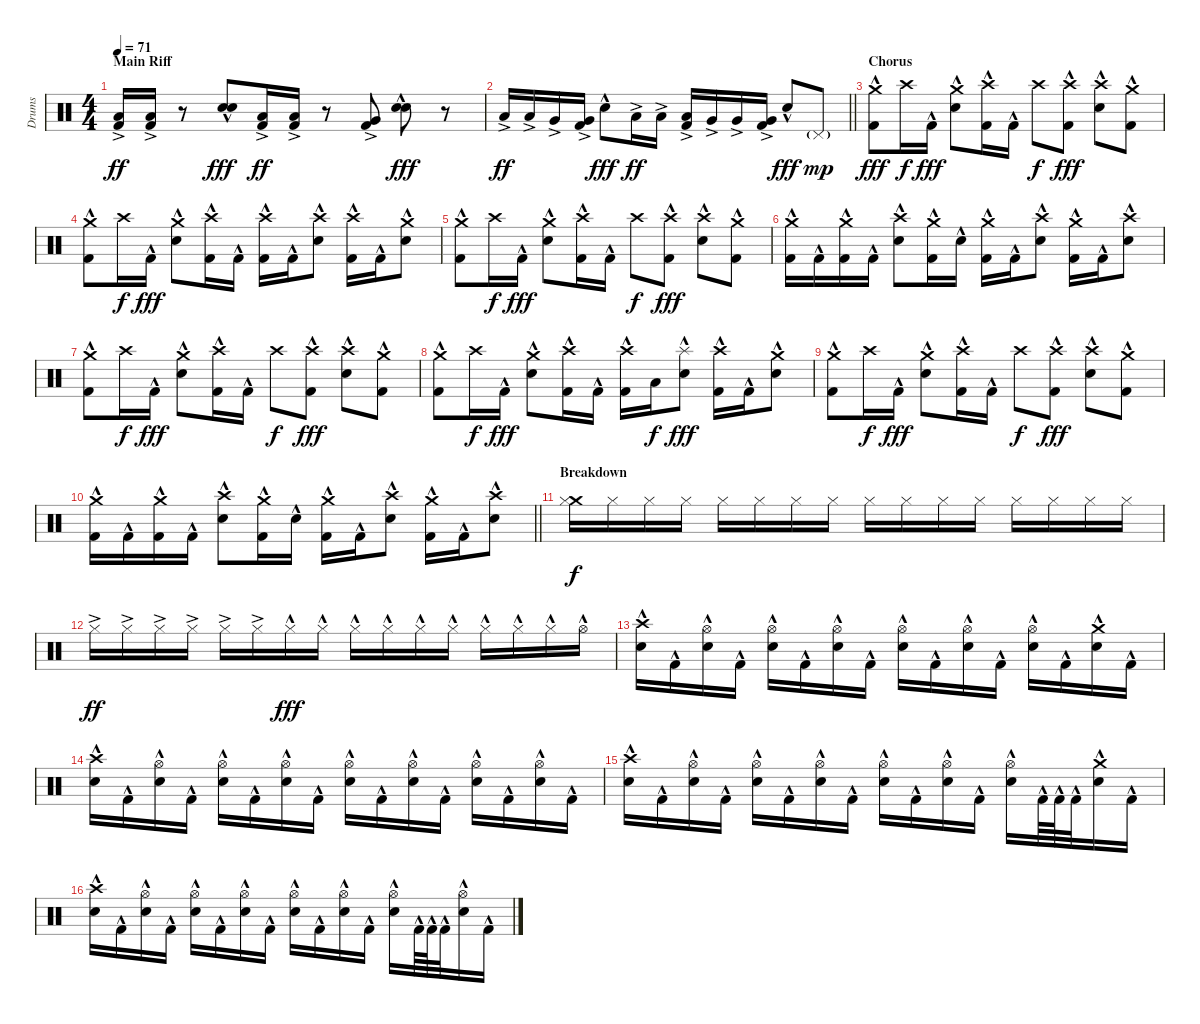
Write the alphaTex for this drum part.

\track ("Drums" "Drums") {instrument percussion}
\staff {score}
\articulation defaults
\ts (4 4)
\section ("" "Main Riff")
\tempo 71
\clef neutral
\ks c
("Low Floor Tom (hit)"{ac} "Kick (hit) 2"{ac}).16{dy ff} ("Low Floor Tom (hit)"{ac} "Kick (hit) 2"{ac}).16 r.8 ("Electric Snare (hit)"{hac} "Snare (hit) 2"{hac}).8{dy fff} ("Low Floor Tom (hit)"{ac} "Kick (hit) 2"{ac}).16{dy ff} ("Low Floor Tom (hit)"{ac} "Kick (hit) 2"{ac}).16 r.8 ("Very Low Tom (hit)"{ac} "Kick (hit) 2"{ac}).8 ("Electric Snare (hit)"{hac} "Snare (hit) 2"{hac}).8{dy fff} r.8 |
\barLineRight lightlight "Low Floor Tom (hit)"{ac}.16{dy ff} "Low Floor Tom (hit)"{ac}.16 "Very Low Tom (hit)"{ac}.16
("Very Low Tom (hit)" "Kick (hit) 2"{ac}).16 "Electric Snare (hit)"{hac}.8{dy fff} "Low Floor Tom (hit)"{ac}.16{dy ff} "Low Floor Tom (hit)"{ac}.16 ("Low Floor Tom (hit)"{ac} "Kick (hit) 2"{ac}).16 "Very Low Tom (hit)"{ac}.16 "Very Low Tom (hit)"{ac}.16 ("Very Low Tom (hit)"{ac} "Kick (hit) 2"{ac}).16 "Electric Snare (hit)"{hac}.8{dy fff} "Pedal Hi-Hat (hit)"{g}.8{dy mp} |
\section ("" "Chorus")
("Crash medium (hit)" "Kick (hit) 2"{hac}).8{dy fff} "Crash high (hit)".16{dy f} "Kick (hit) 2"{hac}.16{dy fff} ("Crash medium (hit)" "Electric Snare (hit)"{hac}).8 ("Crash high (hit)" "Kick (hit) 2"{hac}).16 "Kick (hit) 2"{hac}.16 "Crash high (hit)".8{dy f} ("Crash high (hit)" "Kick (hit) 2"{hac}).8{dy fff} ("Crash high (hit)" "Electric Snare (hit)"{hac}).8 ("Crash medium (hit)" "Kick (hit) 2"{hac}).8 |
("Crash medium (hit)" "Kick (hit) 2"{hac}).8 "Crash high (hit)".16{dy f} "Kick (hit) 2"{hac}.16{dy fff} ("Crash medium (hit)" "Electric Snare (hit)"{hac}).8 ("Crash high (hit)" "Kick (hit) 2"{hac}).16 "Kick (hit) 2"{hac}.16 ("Crash high (hit)" "Kick (hit) 2"{hac}).16 "Kick (hit) 2"{hac}.16 ("Crash high (hit)" "Electric Snare (hit)"{hac}).8 ("Crash high (hit)" "Kick (hit) 2"{hac}).16 "Kick (hit) 2"{hac}.16 ("Crash medium (hit)" "Electric Snare (hit)"{hac}).8 |
("Crash medium (hit)" "Kick (hit) 2"{hac}).8 "Crash high (hit)".16{dy f} "Kick (hit) 2"{hac}.16{dy fff} ("Crash medium (hit)" "Electric Snare (hit)"{hac}).8 ("Crash high (hit)" "Kick (hit) 2"{hac}).16 "Kick (hit) 2"{hac}.16 "Crash high (hit)".8{dy f} ("Crash high (hit)" "Kick (hit) 2"{hac}).8{dy fff} ("Crash high (hit)" "Electric Snare (hit)"{hac}).8 ("Crash medium (hit)" "Kick (hit) 2"{hac}).8 |
("Crash medium (hit)" "Kick (hit) 2"{hac}).16 "Kick (hit) 2"{hac}.16 ("Crash medium (hit)" "Kick (hit) 2"{hac}).16 "Kick (hit) 2"{hac}.16 ("Crash high (hit)" "Electric Snare (hit)"{hac}).8 ("Crash medium (hit)" "Kick (hit) 2"{hac}).16 "Electric Snare (hit)"{hac}.16 ("Crash medium (hit)" "Kick (hit) 2"{hac}).16 "Kick (hit) 2"{hac}.16 ("Crash high (hit)" "Electric Snare (hit)"{hac}).8 ("Crash medium (hit)" "Kick (hit) 2"{hac}).16 "Kick (hit) 2"{hac}.16 ("Crash high (hit)" "Electric Snare (hit)"{hac}).8 |
("Crash medium (hit)" "Kick (hit) 2"{hac}).8 "Crash high (hit)".16{dy f} "Kick (hit) 2"{hac}.16{dy fff} ("Crash medium (hit)" "Electric Snare (hit)"{hac}).8 ("Crash high (hit)" "Kick (hit) 2"{hac}).16 "Kick (hit) 2"{hac}.16 "Crash high (hit)".8{dy f} ("Crash high (hit)" "Kick (hit) 2"{hac}).8{dy fff} ("Crash high (hit)" "Electric Snare (hit)"{hac}).8 ("Crash medium (hit)" "Kick (hit) 2"{hac}).8 |
("Crash medium (hit)" "Kick (hit) 2"{hac}).8 "Crash high (hit)".16{dy f} "Kick (hit) 2"{hac}.16{dy fff} ("Crash medium (hit)" "Electric Snare (hit)"{hac}).8 ("Crash high (hit)" "Kick (hit) 2"{hac}).16 "Kick (hit) 2"{hac}.16 ("Crash high (hit)" "Kick (hit) 2"{hac}).16 "Low Floor Tom (hit)".16{dy f} ("Splash (hit)" "Electric Snare (hit)"{hac}).8{dy fff} ("Crash high (hit)" "Kick (hit) 2"{hac}).16 "Kick (hit) 2"{hac}.16 ("Crash medium (hit)" "Electric Snare (hit)"{hac}).8 |
("Crash medium (hit)" "Kick (hit) 2"{hac}).8 "Crash high (hit)".16{dy f} "Kick (hit) 2"{hac}.16{dy fff} ("Crash medium (hit)" "Electric Snare (hit)"{hac}).8 ("Crash high (hit)" "Kick (hit) 2"{hac}).16 "Kick (hit) 2"{hac}.16 "Crash high (hit)".8{dy f} ("Crash high (hit)" "Kick (hit) 2"{hac}).8{dy fff} ("Crash high (hit)" "Electric Snare (hit)"{hac}).8 ("Crash medium (hit)" "Kick (hit) 2"{hac}).8 |
\barLineRight lightlight
("Crash medium (hit)" "Kick (hit) 2"{hac}).16 "Kick (hit) 2"{hac}.16 ("Crash medium (hit)" "Kick (hit) 2"{hac}).16 "Kick (hit) 2"{hac}.16 ("Crash high (hit)" "Electric Snare (hit)"{hac}).8 ("Crash medium (hit)" "Kick (hit) 2"{hac}).16 "Electric Snare (hit)"{hac}.16 ("Crash medium (hit)" "Kick (hit) 2"{hac}).16 "Kick (hit) 2"{hac}.16 ("Crash high (hit)" "Electric Snare (hit)"{hac}).8 ("Crash medium (hit)" "Kick (hit) 2"{hac}).16 "Kick (hit) 2"{hac}.16 ("Crash high (hit)" "Electric Snare (hit)"{hac}).8 |
\section ("" "Breakdown")
("Crash medium (hit)" "Hi-Hat (closed)").16{dy f} "Hi-Hat (closed)".16 "Hi-Hat (closed)".16 "Hi-Hat (closed)".16 "Hi-Hat (closed)".16 "Hi-Hat (closed)".16 "Hi-Hat (closed)".16 "Hi-Hat (closed)".16 "Hi-Hat (closed)".16 "Hi-Hat (closed)".16 "Hi-Hat (closed)".16 "Hi-Hat (closed)".16 "Hi-Hat (closed)".16 "Hi-Hat (closed)".16 "Hi-Hat (closed)".16 "Hi-Hat (closed)".16 |
"Hi-Hat (closed)"{ac}.16{dy ff} "Hi-Hat (closed)"{ac}.16 "Hi-Hat (closed)"{ac}.16 "Hi-Hat (closed)"{ac}.16 "Hi-Hat (closed)"{ac}.16 "Hi-Hat (closed)"{ac}.16 "Hi-Hat (closed)"{hac}.16{dy fff} "Hi-Hat (closed)"{hac}.16 "Hi-Hat (closed)"{hac}.16 "Hi-Hat (closed)"{hac}.16 "Hi-Hat (closed)"{hac}.16 "Hi-Hat (closed)"{hac}.16 "Hi-Hat (closed)"{hac}.16 "Hi-Hat (closed)"{hac}.16 "Hi-Hat (closed)"{hac}.16 "Hi-Hat (open)"{hac}.16 |
("Crash high (hit)" "Electric Snare (hit)"{hac}).16 "Kick (hit) 2"{hac}.16 ("Hi-Hat (open)" "Electric Snare (hit)"{hac}).16 "Kick (hit) 2"{hac}.16 ("Hi-Hat (open)" "Electric Snare (hit)"{hac}).16 "Kick (hit) 2"{hac}.16 ("Hi-Hat (open)" "Electric Snare (hit)"{hac}).16 "Kick (hit) 2"{hac}.16 ("Hi-Hat (open)" "Electric Snare (hit)"{hac}).16 "Kick (hit) 2"{hac}.16 ("Hi-Hat (open)" "Electric Snare (hit)"{hac}).16 "Kick (hit) 2"{hac}.16 ("Hi-Hat (open)" "Electric Snare (hit)"{hac}).16 "Kick (hit) 2"{hac}.16 ("Crash medium (hit)" "Electric Snare (hit)"{hac}).16 "Kick (hit) 2"{hac}.16 |
("Crash high (hit)" "Electric Snare (hit)"{hac}).16 "Kick (hit) 2"{hac}.16 ("Hi-Hat (open)" "Electric Snare (hit)"{hac}).16 "Kick (hit) 2"{hac}.16 ("Hi-Hat (open)" "Electric Snare (hit)"{hac}).16 "Kick (hit) 2"{hac}.16 ("Hi-Hat (open)" "Electric Snare (hit)"{hac}).16 "Kick (hit) 2"{hac}.16 ("Hi-Hat (open)" "Electric Snare (hit)"{hac}).16 "Kick (hit) 2"{hac}.16 ("Hi-Hat (open)" "Electric Snare (hit)"{hac}).16 "Kick (hit) 2"{hac}.16 ("Hi-Hat (open)" "Electric Snare (hit)"{hac}).16 "Kick (hit) 2"{hac}.16 ("Hi-Hat (open)" "Electric Snare (hit)"{hac}).16 "Kick (hit) 2"{hac}.16 |
("Crash high (hit)" "Electric Snare (hit)"{hac}).16 "Kick (hit) 2"{hac}.16 ("Hi-Hat (open)" "Electric Snare (hit)"{hac}).16 "Kick (hit) 2"{hac}.16 ("Hi-Hat (open)" "Electric Snare (hit)"{hac}).16 "Kick (hit) 2"{hac}.16 ("Hi-Hat (open)" "Electric Snare (hit)"{hac}).16 "Kick (hit) 2"{hac}.16 ("Hi-Hat (open)" "Electric Snare (hit)"{hac}).16 "Kick (hit) 2"{hac}.16 ("Hi-Hat (open)" "Electric Snare (hit)"{hac}).16 "Kick (hit) 2"{hac}.16 ("Hi-Hat (open)" "Electric Snare (hit)"{hac}).16 "Kick (hit) 2"{hac}.64 "Kick (hit) 2"{hac}.64 "Kick (hit) 2"{hac}.32 ("Crash medium (hit)" "Electric Snare (hit)"{hac}).16 "Kick (hit) 2"{hac}.16 |
("Crash high (hit)" "Electric Snare (hit)"{hac}).16 "Kick (hit) 2"{hac}.16 ("Hi-Hat (open)" "Electric Snare (hit)"{hac}).16 "Kick (hit) 2"{hac}.16 ("Hi-Hat (open)" "Electric Snare (hit)"{hac}).16 "Kick (hit) 2"{hac}.16 ("Hi-Hat (open)" "Electric Snare (hit)"{hac}).16 "Kick (hit) 2"{hac}.16 ("Hi-Hat (open)" "Electric Snare (hit)"{hac}).16 "Kick (hit) 2"{hac}.16 ("Hi-Hat (open)" "Electric Snare (hit)"{hac}).16 "Kick (hit) 2"{hac}.16 ("Hi-Hat (open)" "Electric Snare (hit)"{hac}).16 "Kick (hit) 2"{hac}.64 "Kick (hit) 2"{hac}.64 "Kick (hit) 2"{hac}.32 ("Hi-Hat (open)" "Electric Snare (hit)"{hac}).16 "Kick (hit) 2"{hac}.16
